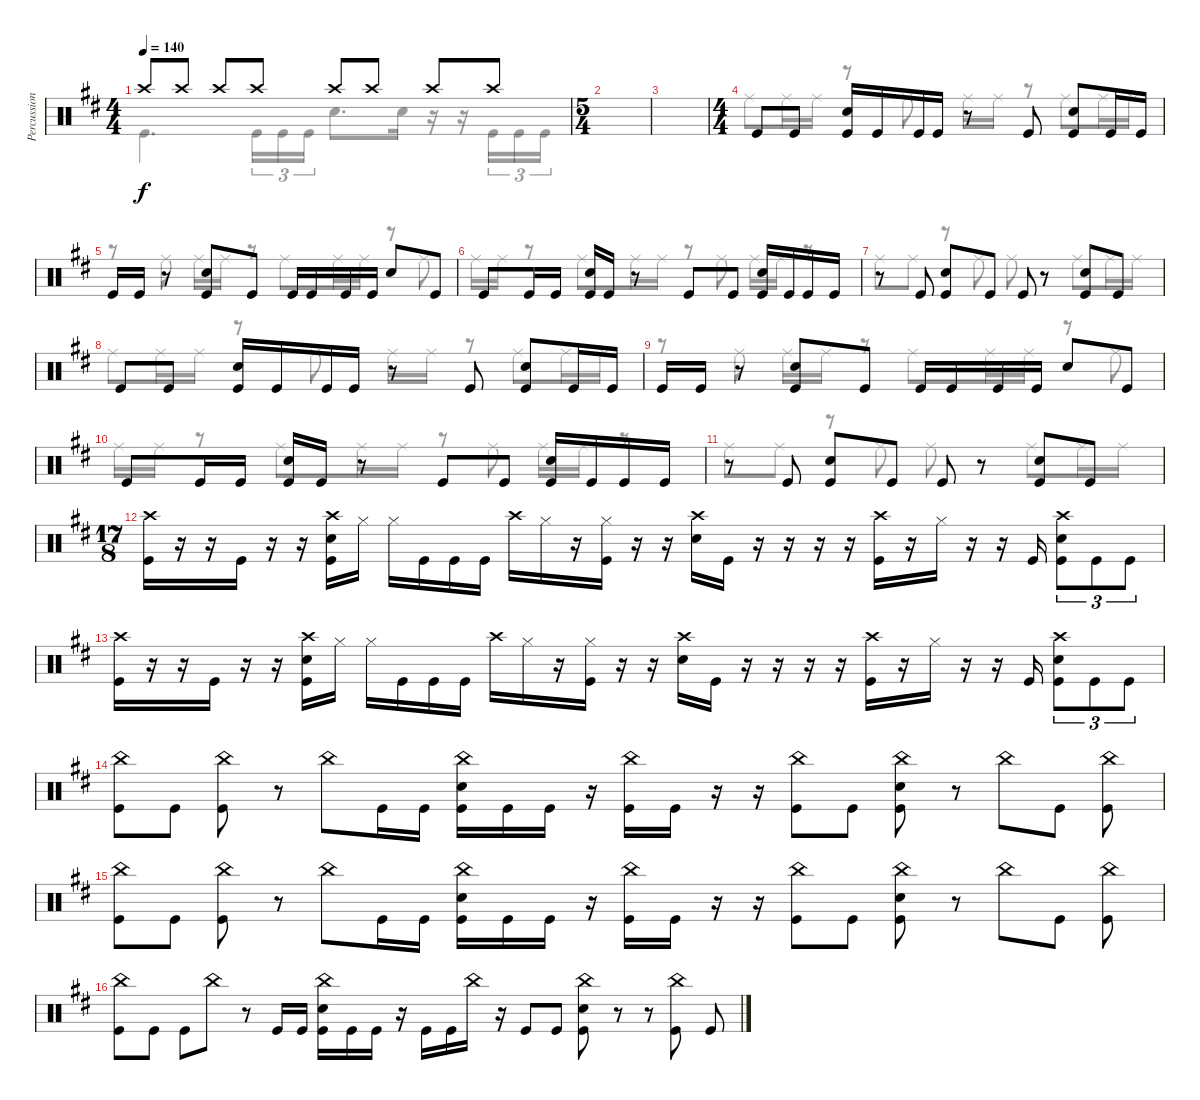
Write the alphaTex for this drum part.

\track ("Percussion" "Percussion") {instrument percussion}
\staff {score}
\articulation defaults
\voice
\ts (4 4)
\tempo 140
\clef neutral
\ks bminor "Crash high (hit)".8{dy f} "Crash high (hit)".8 "Crash high (hit)".8 "Crash high (hit)".8 "Crash high (hit)".8 "Crash high (hit)".8 "Crash high (hit)".8 "Crash high (hit)".8
|
\ts (5 4)
|
|
\ts (4 4)
"Kick (hit)".8 "Kick (hit)".8 ("Snare (hit) 2" "Kick (hit)").16 "Kick (hit)".16 "Kick (hit)".16 "Kick (hit)".16 r.8 "Kick (hit)".8 ("Snare (hit) 2" "Kick (hit)").8 "Kick (hit)".16 "Kick (hit)".16 |
"Kick (hit)".16 "Kick (hit)".16 r.8 ("Snare (hit) 2" "Kick (hit)").8 "Kick (hit)".8 "Kick (hit)".16 "Kick (hit)".16 "Kick (hit)".16 "Kick (hit)".16 "Snare (hit) 2".8 "Kick (hit)".8 |
"Kick (hit)".8 "Kick (hit)".16 "Kick (hit)".16 ("Snare (hit) 2" "Kick (hit)").16 "Kick (hit)".16 r.8 "Kick (hit)".8 "Kick (hit)".8 ("Snare (hit) 2" "Kick (hit)").16 "Kick (hit)".16 "Kick (hit)".16 "Kick (hit)".16 |
r.8 "Kick (hit)".8 ("Snare (hit) 2" "Kick (hit)").8 "Kick (hit)".8 "Kick (hit)".8 r.8 ("Snare (hit) 2" "Kick (hit)").8 "Kick (hit)".8 |
"Kick (hit)".8 "Kick (hit)".8 ("Snare (hit) 2" "Kick (hit)").16 "Kick (hit)".16 "Kick (hit)".16 "Kick (hit)".16 r.8 "Kick (hit)".8 ("Snare (hit) 2" "Kick (hit)").8 "Kick (hit)".16 "Kick (hit)".16 |
"Kick (hit)".16 "Kick (hit)".16 r.8 ("Snare (hit) 2" "Kick (hit)").8 "Kick (hit)".8 "Kick (hit)".16 "Kick (hit)".16 "Kick (hit)".16 "Kick (hit)".16 "Snare (hit) 2".8 "Kick (hit)".8 |
"Kick (hit)".8 "Kick (hit)".16 "Kick (hit)".16 ("Snare (hit) 2" "Kick (hit)").16 "Kick (hit)".16 r.8 "Kick (hit)".8 "Kick (hit)".8 ("Snare (hit) 2" "Kick (hit)").16 "Kick (hit)".16 "Kick (hit)".16 "Kick (hit)".16 |
r.8 "Kick (hit)".8 ("Snare (hit) 2" "Kick (hit)").8 "Kick (hit)".8 "Kick (hit)".8 r.8 ("Snare (hit) 2" "Kick (hit)").8 "Kick (hit)".8 |
\ts (17 8)
("Crash high (hit)" "Kick (hit)").16 r.16 r.16 "Kick (hit)".16 r.16 r.16 ("Crash high (hit)" "Snare (hit) 2" "Kick (hit)").16 "Hi-Hat (closed)".16 "Hi-Hat (closed)".16 "Kick (hit)".16 "Kick (hit)".16 "Kick (hit)".16 "Crash high (hit)".16 "Hi-Hat (closed)".16 r.16 ("Hi-Hat (closed)" "Kick (hit)").16 r.16 r.16 ("Crash high (hit)" "Snare (hit) 2").16 "Kick (hit)".16 r.16 r.16 r.16 r.16 ("Crash high (hit)" "Kick (hit)").16 r.16 "Hi-Hat (closed)".16 r.16 r.16 "Kick (hit)".16 ("Crash high (hit)" "Snare (hit) 2" "Kick (hit)").8{tu (3 2)} "Kick (hit)".8{tu (3 2)} "Kick (hit)".8{tu (3 2)} |
("Crash high (hit)" "Kick (hit)").16 r.16 r.16 "Kick (hit)".16 r.16 r.16 ("Crash high (hit)" "Snare (hit) 2" "Kick (hit)").16 "Hi-Hat (closed)".16 "Hi-Hat (closed)".16 "Kick (hit)".16 "Kick (hit)".16 "Kick (hit)".16 "Crash high (hit)".16 "Hi-Hat (closed)".16 r.16 ("Hi-Hat (closed)" "Kick (hit)").16 r.16 r.16 ("Crash high (hit)" "Snare (hit) 2").16 "Kick (hit)".16 r.16 r.16 r.16 r.16 ("Crash high (hit)" "Kick (hit)").16 r.16 "Hi-Hat (closed)".16 r.16 r.16 "Kick (hit)".16 ("Crash high (hit)" "Snare (hit) 2" "Kick (hit)").8{tu (3 2)} "Kick (hit)".8{tu (3 2)} "Kick (hit)".8{tu (3 2)} |
("China (hit)" "Kick (hit)").8 "Kick (hit)".8 ("China (hit)" "Kick (hit)").8 r.8 "China (hit)".8 "Kick (hit)".16 "Kick (hit)".16 ("China (hit)" "Snare (hit) 2" "Kick (hit)").16 "Kick (hit)".16 "Kick (hit)".16 r.16 ("China (hit)" "Kick (hit)").16 "Kick (hit)".16 r.16 r.16 ("China (hit)" "Kick (hit)").8 "Kick (hit)".8 ("China (hit)" "Snare (hit) 2" "Kick (hit)").8 r.8 "China (hit)".8 "Kick (hit)".8 ("China (hit)" "Kick (hit)").8 |
("China (hit)" "Kick (hit)").8 "Kick (hit)".8 ("China (hit)" "Kick (hit)").8 r.8 "China (hit)".8 "Kick (hit)".16 "Kick (hit)".16 ("China (hit)" "Snare (hit) 2" "Kick (hit)").16 "Kick (hit)".16 "Kick (hit)".16 r.16 ("China (hit)" "Kick (hit)").16 "Kick (hit)".16 r.16 r.16 ("China (hit)" "Kick (hit)").8 "Kick (hit)".8 ("China (hit)" "Snare (hit) 2" "Kick (hit)").8 r.8 "China (hit)".8 "Kick (hit)".8 ("China (hit)" "Kick (hit)").8 |
("China (hit)" "Kick (hit)").8 "Kick (hit)".8 "Kick (hit)".8 "China (hit)".8 r.8 "Kick (hit)".16 "Kick (hit)".16 ("China (hit)" "Snare (hit) 2" "Kick (hit)").16 "Kick (hit)".16 "Kick (hit)".16 r.16 "Kick (hit)".16 "Kick (hit)".16 "China (hit)".16 r.16 "Kick (hit)".8 "Kick (hit)".8 ("China (hit)" "Snare (hit) 2" "Kick (hit)").8 r.8 r.8 ("China (hit)" "Kick (hit)").8 "Kick (hit)".8
\voice
\clef neutral
\ottava regular
\simile none
\ks bminor "Kick (hit)".4{d dy f} "Kick (hit)".16{tu (3 2)} "Kick (hit)".16{tu (3 2)} "Kick (hit)".16{tu (3 2)} "Snare (hit) 2".8{d} "Snare (hit) 2".16
r.16 r.16 "Kick (hit)".16{tu (3 2)} "Kick (hit)".16{tu (3 2)} "Kick (hit)".16{tu (3 2)} |
|
|
"Ride (middle)".8 "Ride (middle)".16 "Ride (middle)".16 r.8 "Ride (middle)".8 "Ride (middle)".16 "Ride (middle)".16 r.8 "Ride (middle)".8 "Ride (middle)".16 "Ride (middle)".16 |
r.8 "Ride (middle)".8 "Ride (middle)".16 "Ride (middle)".16 r.8 "Ride (middle)".8 "Ride (middle)".16 "Ride (middle)".16 r.8 "Ride (middle)".8 |
"Ride (middle)".16 "Ride (middle)".16 r.8 "Ride (middle)".8 "Ride (middle)".16 "Ride (middle)".16 r.8 "Ride (middle)".8 "Ride (middle)".16 "Ride (middle)".16 r.8 |
"Ride (middle)".8 "Ride (middle)".8 r.8 "Ride (middle)".8 "Ride (middle)".8 r.8 "Ride (middle)".8 "Ride (middle)".16 "Ride (middle)".16 |
"Ride (middle)".8 "Ride (middle)".16 "Ride (middle)".16 r.8 "Ride (middle)".8 "Ride (middle)".16 "Ride (middle)".16 r.8 "Ride (middle)".8 "Ride (middle)".16 "Ride (middle)".16 |
r.8 "Ride (middle)".8 "Ride (middle)".16 "Ride (middle)".16 r.8 "Ride (middle)".8 "Ride (middle)".16 "Ride (middle)".16 r.8 "Ride (middle)".8 |
"Ride (middle)".16 "Ride (middle)".16 r.8 "Ride (middle)".8 "Ride (middle)".16 "Ride (middle)".16 r.8 "Ride (middle)".8 "Ride (middle)".16 "Ride (middle)".16 r.8 |
"Ride (middle)".8 "Ride (middle)".8 r.8 "Ride (middle)".8 "Ride (middle)".8 r.8 "Ride (middle)".8 "Ride (middle)".16 "Ride (middle)".16 |
|
|
|
|
